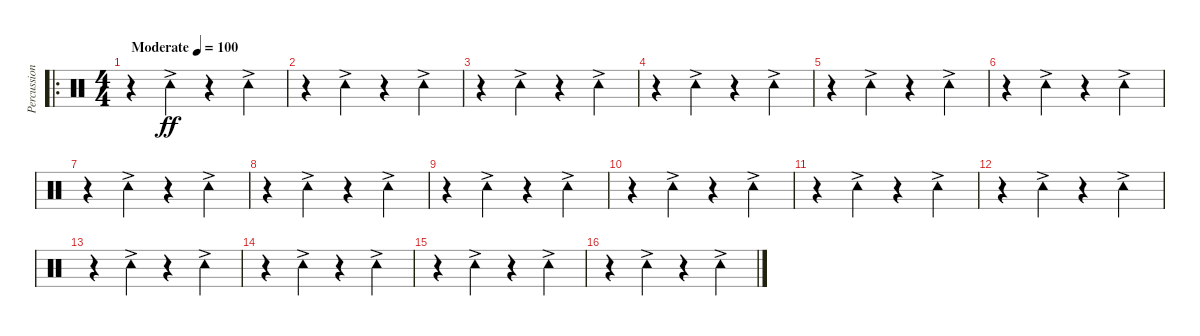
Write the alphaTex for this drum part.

\track ("Percussion" "Percussion") {instrument percussion}
\staff {score}
\articulation defaults
\ro
\ts (4 4)
\tempo (100 "Moderate")
\clef neutral
\ks c
r.4{dy ff} "Tambourine (hit)"{ac}.4 r.4 "Tambourine (hit)"{ac}.4 |
r.4 "Tambourine (hit)"{ac}.4 r.4 "Tambourine (hit)"{ac}.4 |
r.4 "Tambourine (hit)"{ac}.4 r.4 "Tambourine (hit)"{ac}.4 |
r.4 "Tambourine (hit)"{ac}.4 r.4 "Tambourine (hit)"{ac}.4 |
r.4 "Tambourine (hit)"{ac}.4 r.4 "Tambourine (hit)"{ac}.4 |
r.4 "Tambourine (hit)"{ac}.4 r.4 "Tambourine (hit)"{ac}.4 |
r.4 "Tambourine (hit)"{ac}.4 r.4 "Tambourine (hit)"{ac}.4 |
r.4 "Tambourine (hit)"{ac}.4 r.4 "Tambourine (hit)"{ac}.4 |
r.4 "Tambourine (hit)"{ac}.4 r.4 "Tambourine (hit)"{ac}.4 |
r.4 "Tambourine (hit)"{ac}.4 r.4 "Tambourine (hit)"{ac}.4 |
r.4 "Tambourine (hit)"{ac}.4 r.4 "Tambourine (hit)"{ac}.4 |
r.4 "Tambourine (hit)"{ac}.4 r.4 "Tambourine (hit)"{ac}.4 |
r.4 "Tambourine (hit)"{ac}.4 r.4 "Tambourine (hit)"{ac}.4 |
r.4 "Tambourine (hit)"{ac}.4 r.4 "Tambourine (hit)"{ac}.4 |
r.4 "Tambourine (hit)"{ac}.4 r.4 "Tambourine (hit)"{ac}.4 |
r.4 "Tambourine (hit)"{ac}.4 r.4 "Tambourine (hit)"{ac}.4
